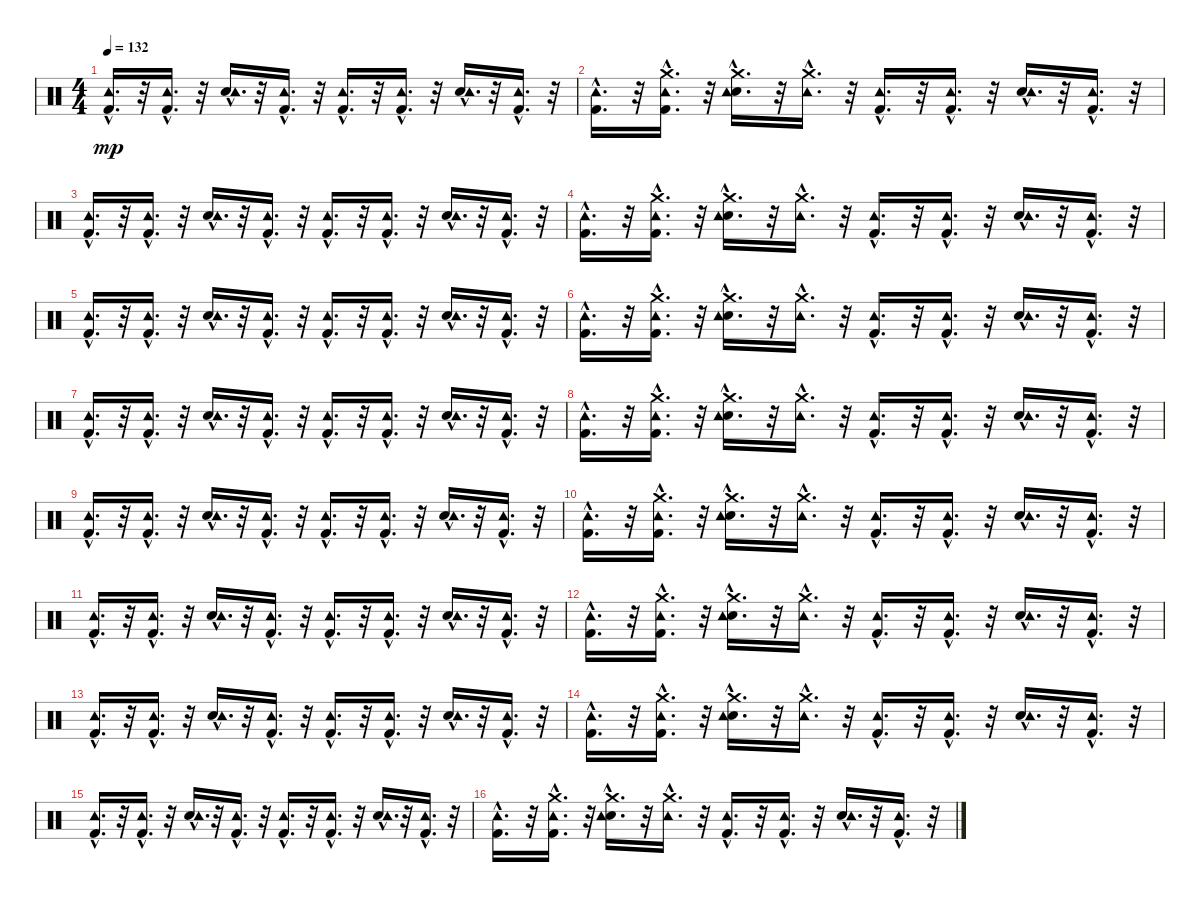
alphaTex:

\track "" {instrument percussion}
\staff {score}
\articulation defaults
\ts (4 4)
\tempo 132
\clef neutral
\ks c
("Kick (hit) 2"{hac} "Tambourine (hit)"{hac}).16{d dy mp} r.32 ("Kick (hit) 2"{hac} "Tambourine (hit)"{hac}).16{d} r.32 ("Snare (hit) 2"{hac} "Tambourine (hit)"{hac}).16{d} r.32 ("Kick (hit) 2"{hac} "Tambourine (hit)"{hac}).16{d} r.32 ("Kick (hit) 2"{hac} "Tambourine (hit)"{hac}).16{d} r.32 ("Kick (hit) 2"{hac} "Tambourine (hit)"{hac}).16{d} r.32 ("Snare (hit) 2"{hac} "Tambourine (hit)"{hac}).16{d} r.32 ("Kick (hit) 2"{hac} "Tambourine (hit)"{hac}).16{d} r.32 |
("Kick (hit) 2"{hac} "Tambourine (hit)"{hac}).16{d} r.32 ("Crash medium (hit)"{hac} "Kick (hit) 2"{hac} "Tambourine (hit)"{hac}).16{d} r.32 ("Crash medium (hit)"{hac} "Snare (hit) 2"{hac} "Tambourine (hit)"{hac}).16{d} r.32 ("Crash medium (hit)"{hac} "Tambourine (hit)"{hac}).16{d} r.32 ("Kick (hit) 2"{hac} "Tambourine (hit)"{hac}).16{d} r.32 ("Kick (hit) 2"{hac} "Tambourine (hit)"{hac}).16{d} r.32 ("Snare (hit) 2"{hac} "Tambourine (hit)"{hac}).16{d} r.32 ("Tambourine (hit)"{hac} "Kick (hit) 2"{hac}).16{d} r.32 |
("Kick (hit) 2"{hac} "Tambourine (hit)"{hac}).16{d} r.32 ("Kick (hit) 2"{hac} "Tambourine (hit)"{hac}).16{d} r.32 ("Snare (hit) 2"{hac} "Tambourine (hit)"{hac}).16{d} r.32 ("Kick (hit) 2"{hac} "Tambourine (hit)"{hac}).16{d} r.32 ("Kick (hit) 2"{hac} "Tambourine (hit)"{hac}).16{d} r.32 ("Kick (hit) 2"{hac} "Tambourine (hit)"{hac}).16{d} r.32 ("Snare (hit) 2"{hac} "Tambourine (hit)"{hac}).16{d} r.32 ("Kick (hit) 2"{hac} "Tambourine (hit)"{hac}).16{d} r.32 |
("Kick (hit) 2"{hac} "Tambourine (hit)"{hac}).16{d} r.32 ("Crash medium (hit)"{hac} "Kick (hit) 2"{hac} "Tambourine (hit)"{hac}).16{d} r.32 ("Crash medium (hit)"{hac} "Snare (hit) 2"{hac} "Tambourine (hit)"{hac}).16{d} r.32 ("Crash medium (hit)"{hac} "Tambourine (hit)"{hac}).16{d} r.32 ("Kick (hit) 2"{hac} "Tambourine (hit)"{hac}).16{d} r.32 ("Kick (hit) 2"{hac} "Tambourine (hit)"{hac}).16{d} r.32 ("Snare (hit) 2"{hac} "Tambourine (hit)"{hac}).16{d} r.32 ("Tambourine (hit)"{hac} "Kick (hit) 2"{hac}).16{d} r.32 |
("Kick (hit) 2"{hac} "Tambourine (hit)"{hac}).16{d} r.32 ("Kick (hit) 2"{hac} "Tambourine (hit)"{hac}).16{d} r.32 ("Snare (hit) 2"{hac} "Tambourine (hit)"{hac}).16{d} r.32 ("Kick (hit) 2"{hac} "Tambourine (hit)"{hac}).16{d} r.32 ("Kick (hit) 2"{hac} "Tambourine (hit)"{hac}).16{d} r.32 ("Kick (hit) 2"{hac} "Tambourine (hit)"{hac}).16{d} r.32 ("Snare (hit) 2"{hac} "Tambourine (hit)"{hac}).16{d} r.32 ("Kick (hit) 2"{hac} "Tambourine (hit)"{hac}).16{d} r.32 |
("Kick (hit) 2"{hac} "Tambourine (hit)"{hac}).16{d} r.32 ("Crash medium (hit)"{hac} "Kick (hit) 2"{hac} "Tambourine (hit)"{hac}).16{d} r.32 ("Crash medium (hit)"{hac} "Snare (hit) 2"{hac} "Tambourine (hit)"{hac}).16{d} r.32 ("Crash medium (hit)"{hac} "Tambourine (hit)"{hac}).16{d} r.32 ("Kick (hit) 2"{hac} "Tambourine (hit)"{hac}).16{d} r.32 ("Kick (hit) 2"{hac} "Tambourine (hit)"{hac}).16{d} r.32 ("Snare (hit) 2"{hac} "Tambourine (hit)"{hac}).16{d} r.32 ("Tambourine (hit)"{hac} "Kick (hit) 2"{hac}).16{d} r.32 |
("Kick (hit) 2"{hac} "Tambourine (hit)"{hac}).16{d} r.32 ("Kick (hit) 2"{hac} "Tambourine (hit)"{hac}).16{d} r.32 ("Snare (hit) 2"{hac} "Tambourine (hit)"{hac}).16{d} r.32 ("Kick (hit) 2"{hac} "Tambourine (hit)"{hac}).16{d} r.32 ("Kick (hit) 2"{hac} "Tambourine (hit)"{hac}).16{d} r.32 ("Kick (hit) 2"{hac} "Tambourine (hit)"{hac}).16{d} r.32 ("Snare (hit) 2"{hac} "Tambourine (hit)"{hac}).16{d} r.32 ("Kick (hit) 2"{hac} "Tambourine (hit)"{hac}).16{d} r.32 |
("Kick (hit) 2"{hac} "Tambourine (hit)"{hac}).16{d} r.32 ("Crash medium (hit)"{hac} "Kick (hit) 2"{hac} "Tambourine (hit)"{hac}).16{d} r.32 ("Crash medium (hit)"{hac} "Snare (hit) 2"{hac} "Tambourine (hit)"{hac}).16{d} r.32 ("Crash medium (hit)"{hac} "Tambourine (hit)"{hac}).16{d} r.32 ("Kick (hit) 2"{hac} "Tambourine (hit)"{hac}).16{d} r.32 ("Kick (hit) 2"{hac} "Tambourine (hit)"{hac}).16{d} r.32 ("Snare (hit) 2"{hac} "Tambourine (hit)"{hac}).16{d} r.32 ("Tambourine (hit)"{hac} "Kick (hit) 2"{hac}).16{d} r.32 |
("Kick (hit) 2"{hac} "Tambourine (hit)"{hac}).16{d} r.32 ("Kick (hit) 2"{hac} "Tambourine (hit)"{hac}).16{d} r.32 ("Snare (hit) 2"{hac} "Tambourine (hit)"{hac}).16{d} r.32 ("Kick (hit) 2"{hac} "Tambourine (hit)"{hac}).16{d} r.32 ("Kick (hit) 2"{hac} "Tambourine (hit)"{hac}).16{d} r.32 ("Kick (hit) 2"{hac} "Tambourine (hit)"{hac}).16{d} r.32 ("Snare (hit) 2"{hac} "Tambourine (hit)"{hac}).16{d} r.32 ("Kick (hit) 2"{hac} "Tambourine (hit)"{hac}).16{d} r.32 |
("Kick (hit) 2"{hac} "Tambourine (hit)"{hac}).16{d} r.32 ("Crash medium (hit)"{hac} "Kick (hit) 2"{hac} "Tambourine (hit)"{hac}).16{d} r.32 ("Crash medium (hit)"{hac} "Snare (hit) 2"{hac} "Tambourine (hit)"{hac}).16{d} r.32 ("Crash medium (hit)"{hac} "Tambourine (hit)"{hac}).16{d} r.32 ("Kick (hit) 2"{hac} "Tambourine (hit)"{hac}).16{d} r.32 ("Kick (hit) 2"{hac} "Tambourine (hit)"{hac}).16{d} r.32 ("Snare (hit) 2"{hac} "Tambourine (hit)"{hac}).16{d} r.32 ("Tambourine (hit)"{hac} "Kick (hit) 2"{hac}).16{d} r.32 |
("Kick (hit) 2"{hac} "Tambourine (hit)"{hac}).16{d} r.32 ("Kick (hit) 2"{hac} "Tambourine (hit)"{hac}).16{d} r.32 ("Snare (hit) 2"{hac} "Tambourine (hit)"{hac}).16{d} r.32 ("Kick (hit) 2"{hac} "Tambourine (hit)"{hac}).16{d} r.32 ("Kick (hit) 2"{hac} "Tambourine (hit)"{hac}).16{d} r.32 ("Kick (hit) 2"{hac} "Tambourine (hit)"{hac}).16{d} r.32 ("Snare (hit) 2"{hac} "Tambourine (hit)"{hac}).16{d} r.32 ("Kick (hit) 2"{hac} "Tambourine (hit)"{hac}).16{d} r.32 |
("Kick (hit) 2"{hac} "Tambourine (hit)"{hac}).16{d} r.32 ("Crash medium (hit)"{hac} "Kick (hit) 2"{hac} "Tambourine (hit)"{hac}).16{d} r.32 ("Crash medium (hit)"{hac} "Snare (hit) 2"{hac} "Tambourine (hit)"{hac}).16{d} r.32 ("Crash medium (hit)"{hac} "Tambourine (hit)"{hac}).16{d} r.32 ("Kick (hit) 2"{hac} "Tambourine (hit)"{hac}).16{d} r.32 ("Kick (hit) 2"{hac} "Tambourine (hit)"{hac}).16{d} r.32 ("Snare (hit) 2"{hac} "Tambourine (hit)"{hac}).16{d} r.32 ("Tambourine (hit)"{hac} "Kick (hit) 2"{hac}).16{d} r.32 |
("Kick (hit) 2"{hac} "Tambourine (hit)"{hac}).16{d} r.32 ("Kick (hit) 2"{hac} "Tambourine (hit)"{hac}).16{d} r.32 ("Snare (hit) 2"{hac} "Tambourine (hit)"{hac}).16{d} r.32 ("Kick (hit) 2"{hac} "Tambourine (hit)"{hac}).16{d} r.32 ("Kick (hit) 2"{hac} "Tambourine (hit)"{hac}).16{d} r.32 ("Kick (hit) 2"{hac} "Tambourine (hit)"{hac}).16{d} r.32 ("Snare (hit) 2"{hac} "Tambourine (hit)"{hac}).16{d} r.32 ("Kick (hit) 2"{hac} "Tambourine (hit)"{hac}).16{d} r.32 |
("Kick (hit) 2"{hac} "Tambourine (hit)"{hac}).16{d} r.32 ("Crash medium (hit)"{hac} "Kick (hit) 2"{hac} "Tambourine (hit)"{hac}).16{d} r.32 ("Crash medium (hit)"{hac} "Snare (hit) 2"{hac} "Tambourine (hit)"{hac}).16{d} r.32 ("Crash medium (hit)"{hac} "Tambourine (hit)"{hac}).16{d} r.32 ("Kick (hit) 2"{hac} "Tambourine (hit)"{hac}).16{d} r.32 ("Kick (hit) 2"{hac} "Tambourine (hit)"{hac}).16{d} r.32 ("Snare (hit) 2"{hac} "Tambourine (hit)"{hac}).16{d} r.32 ("Tambourine (hit)"{hac} "Kick (hit) 2"{hac}).16{d} r.32 |
("Kick (hit) 2"{hac} "Tambourine (hit)"{hac}).16{d} r.32 ("Kick (hit) 2"{hac} "Tambourine (hit)"{hac}).16{d} r.32 ("Snare (hit) 2"{hac} "Tambourine (hit)"{hac}).16{d} r.32 ("Kick (hit) 2"{hac} "Tambourine (hit)"{hac}).16{d} r.32 ("Kick (hit) 2"{hac} "Tambourine (hit)"{hac}).16{d} r.32 ("Kick (hit) 2"{hac} "Tambourine (hit)"{hac}).16{d} r.32 ("Snare (hit) 2"{hac} "Tambourine (hit)"{hac}).16{d} r.32 ("Kick (hit) 2"{hac} "Tambourine (hit)"{hac}).16{d} r.32 |
("Kick (hit) 2"{hac} "Tambourine (hit)"{hac}).16{d} r.32 ("Crash medium (hit)"{hac} "Kick (hit) 2"{hac} "Tambourine (hit)"{hac}).16{d} r.32 ("Crash medium (hit)"{hac} "Snare (hit) 2"{hac} "Tambourine (hit)"{hac}).16{d} r.32 ("Crash medium (hit)"{hac} "Tambourine (hit)"{hac}).16{d} r.32 ("Kick (hit) 2"{hac} "Tambourine (hit)"{hac}).16{d} r.32 ("Kick (hit) 2"{hac} "Tambourine (hit)"{hac}).16{d} r.32 ("Snare (hit) 2"{hac} "Tambourine (hit)"{hac}).16{d} r.32 ("Tambourine (hit)"{hac} "Kick (hit) 2"{hac}).16{d} r.32
